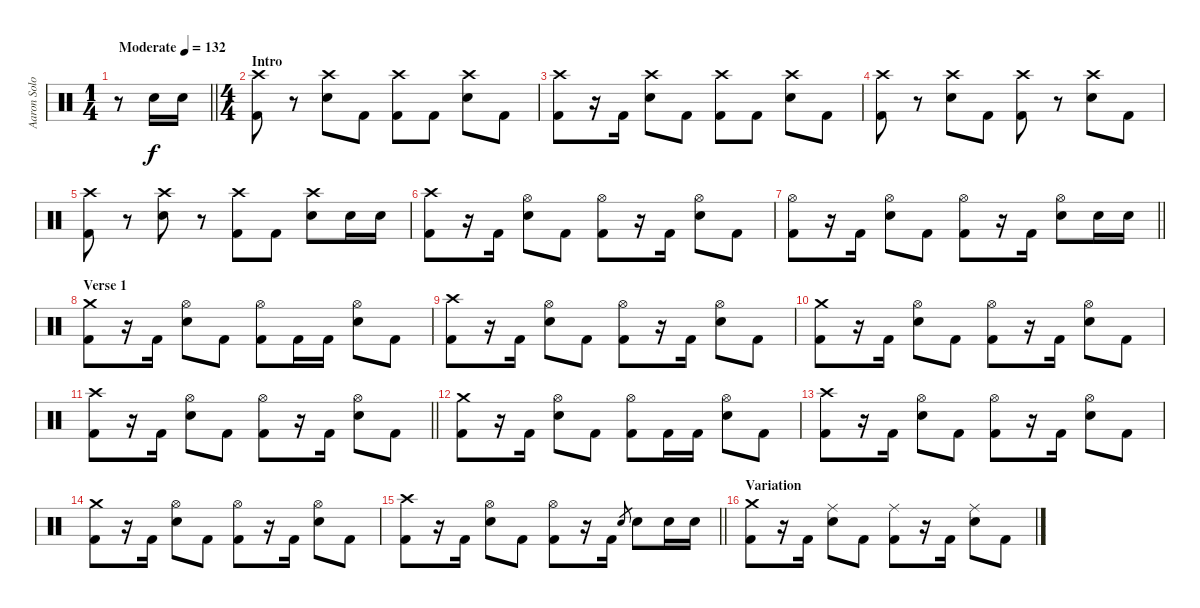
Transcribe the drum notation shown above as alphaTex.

\track ("Aaron Solowoniuk" "Aaron Solo") {instrument percussion}
\staff {score}
\articulation defaults
\ts (1 4)
\tempo (132 "Moderate")
\clef neutral
\barLineRight lightlight
\ks c
r.8{dy f} "Electric Snare (hit)".16 "Electric Snare (hit)".16 |
\ts (4 4)
\section ("" "Intro")
("Crash high (hit)" "Kick (hit) 2").8 r.8 ("Crash high (hit)" "Electric Snare (hit)").8 "Kick (hit) 2".8 ("Crash high (hit)" "Kick (hit) 2").8 "Kick (hit) 2".8 ("Crash high (hit)" "Electric Snare (hit)").8 "Kick (hit) 2".8 |
("Crash high (hit)" "Kick (hit) 2").8 r.16 "Kick (hit) 2".16 ("Crash high (hit)" "Electric Snare (hit)").8 "Kick (hit) 2".8 ("Crash high (hit)" "Kick (hit) 2").8 "Kick (hit) 2".8 ("Crash high (hit)" "Electric Snare (hit)").8 "Kick (hit) 2".8 |
("Crash high (hit)" "Kick (hit) 2").8 r.8 ("Crash high (hit)" "Electric Snare (hit)").8 "Kick (hit) 2".8 ("Crash high (hit)" "Kick (hit) 2").8 r.8 ("Crash high (hit)" "Electric Snare (hit)").8 "Kick (hit) 2".8 |
("Crash high (hit)" "Kick (hit) 2").8 r.8 ("Crash high (hit)" "Electric Snare (hit)").8 r.8 ("Crash high (hit)" "Kick (hit) 2").8 "Kick (hit) 2".8 ("Crash high (hit)" "Electric Snare (hit)").8 "Electric Snare (hit)".16 "Electric Snare (hit)".16 |
("Crash high (hit)" "Kick (hit) 2").8 r.16 "Kick (hit) 2".16 ("Hi-Hat (open)" "Electric Snare (hit)").8 "Kick (hit) 2".8 ("Hi-Hat (open)" "Kick (hit) 2").8 r.16 "Kick (hit) 2".16 ("Hi-Hat (open)" "Electric Snare (hit)").8 "Kick (hit) 2".8 |
\barLineRight lightlight
("Hi-Hat (open)" "Kick (hit) 2").8 r.16 "Kick (hit) 2".16 ("Hi-Hat (open)" "Electric Snare (hit)").8 "Kick (hit) 2".8 ("Hi-Hat (open)" "Kick (hit) 2").8 r.16 "Kick (hit) 2".16 ("Hi-Hat (open)" "Electric Snare (hit)").8 "Electric Snare (hit)".16 "Electric Snare (hit)".16 |
\section ("" "Verse 1")
("Crash medium (hit)" "Kick (hit) 2").8 r.16 "Kick (hit) 2".16 ("Hi-Hat (open)" "Electric Snare (hit)").8 "Kick (hit) 2".8 ("Hi-Hat (open)" "Kick (hit) 2").8 "Kick (hit) 2".16 "Kick (hit) 2".16 ("Hi-Hat (open)" "Electric Snare (hit)").8 "Kick (hit) 2".8 |
("Crash high (hit)" "Kick (hit) 2").8 r.16 "Kick (hit) 2".16 ("Hi-Hat (open)" "Electric Snare (hit)").8 "Kick (hit) 2".8 ("Hi-Hat (open)" "Kick (hit) 2").8 r.16 "Kick (hit) 2".16 ("Hi-Hat (open)" "Electric Snare (hit)").8 "Kick (hit) 2".8 |
("Crash medium (hit)" "Kick (hit) 2").8 r.16 "Kick (hit) 2".16 ("Hi-Hat (open)" "Electric Snare (hit)").8 "Kick (hit) 2".8 ("Hi-Hat (open)" "Kick (hit) 2").8 r.16 "Kick (hit) 2".16 ("Hi-Hat (open)" "Electric Snare (hit)").8 "Kick (hit) 2".8 |
\barLineRight lightlight
("Crash high (hit)" "Kick (hit) 2").8 r.16 "Kick (hit) 2".16 ("Hi-Hat (open)" "Electric Snare (hit)").8 "Kick (hit) 2".8 ("Hi-Hat (open)" "Kick (hit) 2").8 r.16 "Kick (hit) 2".16 ("Hi-Hat (open)" "Electric Snare (hit)").8 "Kick (hit) 2".8 |
("Crash medium (hit)" "Kick (hit) 2").8 r.16 "Kick (hit) 2".16 ("Hi-Hat (open)" "Electric Snare (hit)").8 "Kick (hit) 2".8 ("Hi-Hat (open)" "Kick (hit) 2").8 "Kick (hit) 2".16 "Kick (hit) 2".16 ("Hi-Hat (open)" "Electric Snare (hit)").8 "Kick (hit) 2".8 |
("Crash high (hit)" "Kick (hit) 2").8 r.16 "Kick (hit) 2".16 ("Hi-Hat (open)" "Electric Snare (hit)").8 "Kick (hit) 2".8 ("Hi-Hat (open)" "Kick (hit) 2").8 r.16 "Kick (hit) 2".16 ("Hi-Hat (open)" "Electric Snare (hit)").8 "Kick (hit) 2".8 |
("Crash medium (hit)" "Kick (hit) 2").8 r.16 "Kick (hit) 2".16 ("Hi-Hat (open)" "Electric Snare (hit)").8 "Kick (hit) 2".8 ("Hi-Hat (open)" "Kick (hit) 2").8 r.16 "Kick (hit) 2".16 ("Hi-Hat (open)" "Electric Snare (hit)").8 "Kick (hit) 2".8 |
\barLineRight lightlight
("Crash high (hit)" "Kick (hit) 2").8 r.16 "Kick (hit) 2".16 ("Hi-Hat (open)" "Electric Snare (hit)").8 "Kick (hit) 2".8 ("Hi-Hat (open)" "Kick (hit) 2").8 r.16 "Kick (hit) 2".16 "Electric Snare (hit)".8{gr} "Electric Snare (hit)".8 "Electric Snare (hit)".16 "Electric Snare (hit)".16 |
\section ("" "Variation")
("Crash medium (hit)" "Kick (hit) 2").8 r.16 "Kick (hit) 2".16 ("Ride (middle)" "Electric Snare (hit)").8 "Kick (hit) 2".8 ("Ride (middle)" "Kick (hit) 2").8 r.16 "Kick (hit) 2".16 ("Ride (middle)" "Electric Snare (hit)").8 "Kick (hit) 2".8
